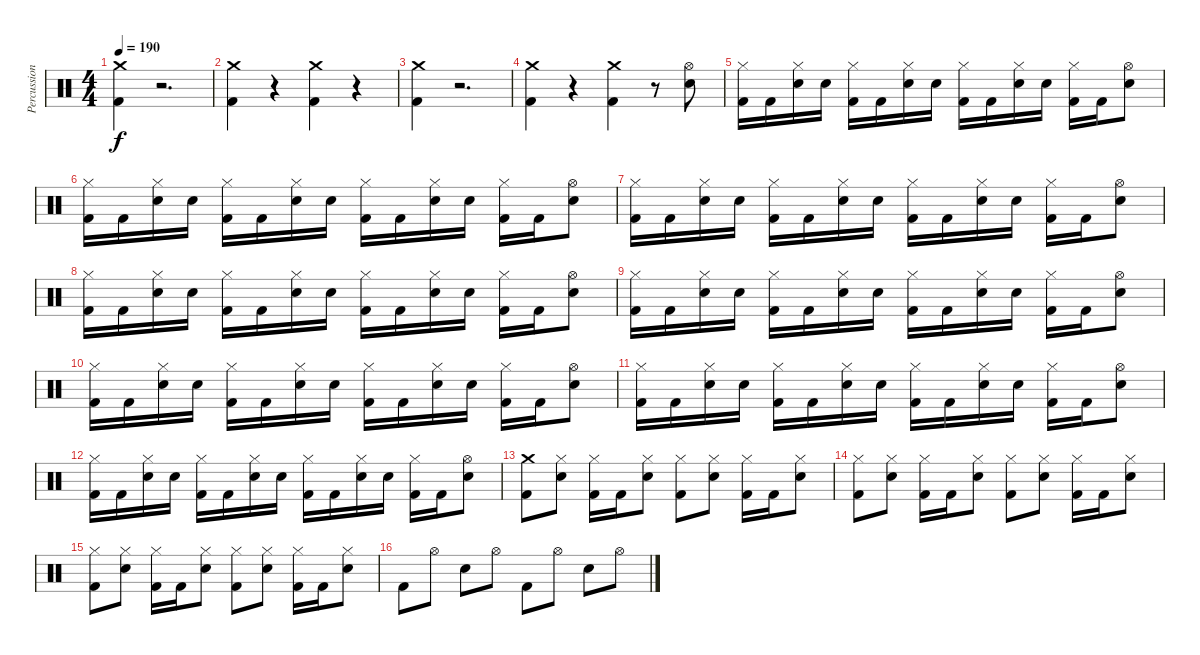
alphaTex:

\track ("Percussion" "Percussion") {instrument percussion}
\staff {score}
\articulation defaults
\ts (4 4)
\tempo 190
\clef neutral
\ks c
("Crash medium (hit)" "Kick (hit) 2").4{dy f} r.2{d} |
("Crash medium (hit)" "Kick (hit) 2").4 r.4 ("Crash medium (hit)" "Kick (hit) 2").4 r.4 |
("Crash medium (hit)" "Kick (hit) 2").4 r.2{d} |
("Crash medium (hit)" "Kick (hit) 2").4 r.4 ("Crash medium (hit)" "Kick (hit) 2").4 r.8 ("Electric Snare (hit)" "Hi-Hat (open)").8 |
("Hi-Hat (closed)" "Kick (hit) 2").16 "Kick (hit) 2".16 ("Hi-Hat (closed)" "Electric Snare (hit)").16 "Electric Snare (hit)".16 ("Hi-Hat (closed)" "Kick (hit) 2").16 "Kick (hit) 2".16 ("Hi-Hat (closed)" "Electric Snare (hit)").16 "Electric Snare (hit)".16 ("Hi-Hat (closed)" "Kick (hit) 2").16 "Kick (hit) 2".16 ("Hi-Hat (closed)" "Electric Snare (hit)").16 "Electric Snare (hit)".16 ("Hi-Hat (closed)" "Kick (hit) 2").16 "Kick (hit) 2".16 ("Hi-Hat (open)" "Electric Snare (hit)").8 |
("Hi-Hat (closed)" "Kick (hit) 2").16 "Kick (hit) 2".16 ("Hi-Hat (closed)" "Electric Snare (hit)").16 "Electric Snare (hit)".16 ("Hi-Hat (closed)" "Kick (hit) 2").16 "Kick (hit) 2".16 ("Hi-Hat (closed)" "Electric Snare (hit)").16 "Electric Snare (hit)".16 ("Hi-Hat (closed)" "Kick (hit) 2").16 "Kick (hit) 2".16 ("Hi-Hat (closed)" "Electric Snare (hit)").16 "Electric Snare (hit)".16 ("Hi-Hat (closed)" "Kick (hit) 2").16 "Kick (hit) 2".16 ("Hi-Hat (open)" "Electric Snare (hit)").8 |
("Hi-Hat (closed)" "Kick (hit) 2").16 "Kick (hit) 2".16 ("Hi-Hat (closed)" "Electric Snare (hit)").16 "Electric Snare (hit)".16 ("Hi-Hat (closed)" "Kick (hit) 2").16 "Kick (hit) 2".16 ("Hi-Hat (closed)" "Electric Snare (hit)").16 "Electric Snare (hit)".16 ("Hi-Hat (closed)" "Kick (hit) 2").16 "Kick (hit) 2".16 ("Hi-Hat (closed)" "Electric Snare (hit)").16 "Electric Snare (hit)".16 ("Hi-Hat (closed)" "Kick (hit) 2").16 "Kick (hit) 2".16 ("Hi-Hat (open)" "Electric Snare (hit)").8 |
("Hi-Hat (closed)" "Kick (hit) 2").16 "Kick (hit) 2".16 ("Hi-Hat (closed)" "Electric Snare (hit)").16 "Electric Snare (hit)".16 ("Hi-Hat (closed)" "Kick (hit) 2").16 "Kick (hit) 2".16 ("Hi-Hat (closed)" "Electric Snare (hit)").16 "Electric Snare (hit)".16 ("Hi-Hat (closed)" "Kick (hit) 2").16 "Kick (hit) 2".16 ("Hi-Hat (closed)" "Electric Snare (hit)").16 "Electric Snare (hit)".16 ("Hi-Hat (closed)" "Kick (hit) 2").16 "Kick (hit) 2".16 ("Hi-Hat (open)" "Electric Snare (hit)").8 |
("Hi-Hat (closed)" "Kick (hit) 2").16 "Kick (hit) 2".16 ("Hi-Hat (closed)" "Electric Snare (hit)").16 "Electric Snare (hit)".16 ("Hi-Hat (closed)" "Kick (hit) 2").16 "Kick (hit) 2".16 ("Hi-Hat (closed)" "Electric Snare (hit)").16 "Electric Snare (hit)".16 ("Hi-Hat (closed)" "Kick (hit) 2").16 "Kick (hit) 2".16 ("Hi-Hat (closed)" "Electric Snare (hit)").16 "Electric Snare (hit)".16 ("Hi-Hat (closed)" "Kick (hit) 2").16 "Kick (hit) 2".16 ("Hi-Hat (open)" "Electric Snare (hit)").8 |
("Hi-Hat (closed)" "Kick (hit) 2").16 "Kick (hit) 2".16 ("Hi-Hat (closed)" "Electric Snare (hit)").16 "Electric Snare (hit)".16 ("Hi-Hat (closed)" "Kick (hit) 2").16 "Kick (hit) 2".16 ("Hi-Hat (closed)" "Electric Snare (hit)").16 "Electric Snare (hit)".16 ("Hi-Hat (closed)" "Kick (hit) 2").16 "Kick (hit) 2".16 ("Hi-Hat (closed)" "Electric Snare (hit)").16 "Electric Snare (hit)".16 ("Hi-Hat (closed)" "Kick (hit) 2").16 "Kick (hit) 2".16 ("Hi-Hat (open)" "Electric Snare (hit)").8 |
("Hi-Hat (closed)" "Kick (hit) 2").16 "Kick (hit) 2".16 ("Hi-Hat (closed)" "Electric Snare (hit)").16 "Electric Snare (hit)".16 ("Hi-Hat (closed)" "Kick (hit) 2").16 "Kick (hit) 2".16 ("Hi-Hat (closed)" "Electric Snare (hit)").16 "Electric Snare (hit)".16 ("Hi-Hat (closed)" "Kick (hit) 2").16 "Kick (hit) 2".16 ("Hi-Hat (closed)" "Electric Snare (hit)").16 "Electric Snare (hit)".16 ("Hi-Hat (closed)" "Kick (hit) 2").16 "Kick (hit) 2".16 ("Hi-Hat (open)" "Electric Snare (hit)").8 |
("Hi-Hat (closed)" "Kick (hit) 2").16 "Kick (hit) 2".16 ("Hi-Hat (closed)" "Electric Snare (hit)").16 "Electric Snare (hit)".16 ("Hi-Hat (closed)" "Kick (hit) 2").16 "Kick (hit) 2".16 ("Hi-Hat (closed)" "Electric Snare (hit)").16 "Electric Snare (hit)".16 ("Hi-Hat (closed)" "Kick (hit) 2").16 "Kick (hit) 2".16 ("Hi-Hat (closed)" "Electric Snare (hit)").16 "Electric Snare (hit)".16 ("Hi-Hat (closed)" "Kick (hit) 2").16 "Kick (hit) 2".16 ("Hi-Hat (open)" "Electric Snare (hit)").8 |
("Crash medium (hit)" "Kick (hit) 2").8 ("Hi-Hat (closed)" "Electric Snare (hit)").8 ("Hi-Hat (closed)" "Kick (hit) 2").16 "Kick (hit) 2".16 ("Hi-Hat (closed)" "Electric Snare (hit)").8 ("Hi-Hat (closed)" "Kick (hit) 2").8 ("Hi-Hat (closed)" "Electric Snare (hit)").8 ("Hi-Hat (closed)" "Kick (hit) 2").16 "Kick (hit) 2".16 ("Hi-Hat (closed)" "Electric Snare (hit)").8 |
("Hi-Hat (closed)" "Kick (hit) 2").8 ("Hi-Hat (closed)" "Electric Snare (hit)").8 ("Hi-Hat (closed)" "Kick (hit) 2").16 "Kick (hit) 2".16 ("Hi-Hat (closed)" "Electric Snare (hit)").8 ("Hi-Hat (closed)" "Kick (hit) 2").8 ("Hi-Hat (closed)" "Electric Snare (hit)").8 ("Hi-Hat (closed)" "Kick (hit) 2").16 "Kick (hit) 2".16 ("Hi-Hat (closed)" "Electric Snare (hit)").8 |
("Hi-Hat (closed)" "Kick (hit) 2").8 ("Hi-Hat (closed)" "Electric Snare (hit)").8 ("Hi-Hat (closed)" "Kick (hit) 2").16 "Kick (hit) 2".16 ("Hi-Hat (closed)" "Electric Snare (hit)").8 ("Hi-Hat (closed)" "Kick (hit) 2").8 ("Hi-Hat (closed)" "Electric Snare (hit)").8 ("Hi-Hat (closed)" "Kick (hit) 2").16 "Kick (hit) 2".16 ("Hi-Hat (closed)" "Electric Snare (hit)").8 |
"Kick (hit) 2".8 "Hi-Hat (open)".8 "Electric Snare (hit)".8 "Hi-Hat (open)".8 "Kick (hit) 2".8 "Hi-Hat (open)".8 "Electric Snare (hit)".8 "Hi-Hat (open)".8
